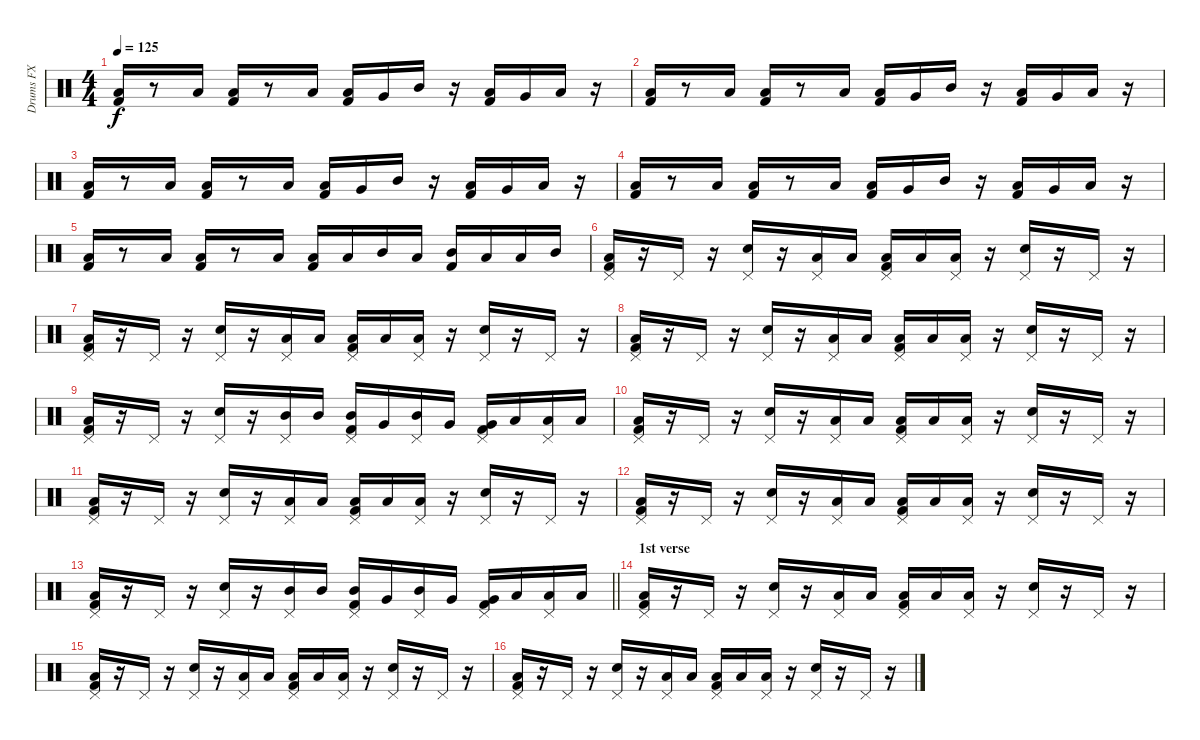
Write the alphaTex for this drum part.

\track ("Drums FX" "Drums FX") {instrument percussion}
\staff {score}
\articulation defaults
\ts (4 4)
\tempo 125
\clef neutral
\ks c
("Low Floor Tom (hit)" "Kick (hit) 2").16{dy f} r.8 "Low Floor Tom (hit)".16 ("Low Floor Tom (hit)" "Kick (hit) 2").16 r.8 "Low Floor Tom (hit)".16 ("Low Floor Tom (hit)" "Kick (hit) 2").16 "Very Low Tom (hit)".16 "Mid Tom (hit)".16 r.16 ("Low Floor Tom (hit)" "Kick (hit) 2").16 "Very Low Tom (hit)".16 "Low Floor Tom (hit)".16 r.16 |
("Low Floor Tom (hit)" "Kick (hit) 2").16 r.8 "Low Floor Tom (hit)".16 ("Low Floor Tom (hit)" "Kick (hit) 2").16 r.8 "Low Floor Tom (hit)".16 ("Low Floor Tom (hit)" "Kick (hit) 2").16 "Very Low Tom (hit)".16 "Mid Tom (hit)".16 r.16 ("Low Floor Tom (hit)" "Kick (hit) 2").16 "Very Low Tom (hit)".16 "Low Floor Tom (hit)".16 r.16 |
("Low Floor Tom (hit)" "Kick (hit) 2").16 r.8 "Low Floor Tom (hit)".16 ("Low Floor Tom (hit)" "Kick (hit) 2").16 r.8 "Low Floor Tom (hit)".16 ("Low Floor Tom (hit)" "Kick (hit) 2").16 "Very Low Tom (hit)".16 "Mid Tom (hit)".16 r.16 ("Low Floor Tom (hit)" "Kick (hit) 2").16 "Very Low Tom (hit)".16 "Low Floor Tom (hit)".16 r.16 |
("Low Floor Tom (hit)" "Kick (hit) 2").16 r.8 "Low Floor Tom (hit)".16 ("Low Floor Tom (hit)" "Kick (hit) 2").16 r.8 "Low Floor Tom (hit)".16 ("Low Floor Tom (hit)" "Kick (hit) 2").16 "Very Low Tom (hit)".16 "Mid Tom (hit)".16 r.16 ("Low Floor Tom (hit)" "Kick (hit) 2").16 "Very Low Tom (hit)".16 "Low Floor Tom (hit)".16 r.16 |
("Low Floor Tom (hit)" "Kick (hit) 2").16 r.8 "Low Floor Tom (hit)".16 ("Low Floor Tom (hit)" "Kick (hit) 2").16 r.8 "Low Floor Tom (hit)".16 ("Low Floor Tom (hit)" "Kick (hit) 2").16 "Low Floor Tom (hit)".16 "Mid Tom (hit)".16 "Low Floor Tom (hit)".16 ("Mid Tom (hit)" "Kick (hit) 2").16 "Low Floor Tom (hit)".16 "Low Floor Tom (hit)".16 "Mid Tom (hit)".16 |
("Low Floor Tom (hit)" "Pedal Hi-Hat (hit)" "Kick (hit) 2").16 r.16 "Pedal Hi-Hat (hit)".16 r.16 ("Snare (hit) 2" "Pedal Hi-Hat (hit)").16 r.16 ("Low Floor Tom (hit)" "Pedal Hi-Hat (hit)").16 "Low Floor Tom (hit)".16 ("Low Floor Tom (hit)" "Pedal Hi-Hat (hit)" "Kick (hit) 2").16 "Low Floor Tom (hit)".16 ("Low Floor Tom (hit)" "Pedal Hi-Hat (hit)").16 r.16 ("Snare (hit) 2" "Pedal Hi-Hat (hit)").16 r.16 "Pedal Hi-Hat (hit)".16 r.16 |
("Low Floor Tom (hit)" "Pedal Hi-Hat (hit)" "Kick (hit) 2").16 r.16 "Pedal Hi-Hat (hit)".16 r.16 ("Snare (hit) 2" "Pedal Hi-Hat (hit)").16 r.16 ("Low Floor Tom (hit)" "Pedal Hi-Hat (hit)").16 "Low Floor Tom (hit)".16 ("Low Floor Tom (hit)" "Pedal Hi-Hat (hit)" "Kick (hit) 2").16 "Low Floor Tom (hit)".16 ("Low Floor Tom (hit)" "Pedal Hi-Hat (hit)").16 r.16 ("Snare (hit) 2" "Pedal Hi-Hat (hit)").16 r.16 "Pedal Hi-Hat (hit)".16 r.16 |
("Low Floor Tom (hit)" "Pedal Hi-Hat (hit)" "Kick (hit) 2").16 r.16 "Pedal Hi-Hat (hit)".16 r.16 ("Snare (hit) 2" "Pedal Hi-Hat (hit)").16 r.16 ("Low Floor Tom (hit)" "Pedal Hi-Hat (hit)").16 "Low Floor Tom (hit)".16 ("Low Floor Tom (hit)" "Pedal Hi-Hat (hit)" "Kick (hit) 2").16 "Low Floor Tom (hit)".16 ("Low Floor Tom (hit)" "Pedal Hi-Hat (hit)").16 r.16 ("Snare (hit) 2" "Pedal Hi-Hat (hit)").16 r.16 "Pedal Hi-Hat (hit)".16 r.16 |
("Low Floor Tom (hit)" "Pedal Hi-Hat (hit)" "Kick (hit) 2").16 r.16 "Pedal Hi-Hat (hit)".16 r.16 ("Snare (hit) 2" "Pedal Hi-Hat (hit)").16 r.16 ("Mid Tom (hit)" "Pedal Hi-Hat (hit)").16 "Mid Tom (hit)".16 ("Mid Tom (hit)" "Pedal Hi-Hat (hit)" "Kick (hit) 2").16 "Very Low Tom (hit)".16 ("Mid Tom (hit)" "Pedal Hi-Hat (hit)").16 "Very Low Tom (hit)".16 ("Very Low Tom (hit)" "Pedal Hi-Hat (hit)" "Kick (hit) 2").16 "Low Floor Tom (hit)".16 ("Low Floor Tom (hit)" "Pedal Hi-Hat (hit)").16 "Low Floor Tom (hit)".16 |
("Low Floor Tom (hit)" "Pedal Hi-Hat (hit)" "Kick (hit) 2").16 r.16 "Pedal Hi-Hat (hit)".16 r.16 ("Snare (hit) 2" "Pedal Hi-Hat (hit)").16 r.16 ("Low Floor Tom (hit)" "Pedal Hi-Hat (hit)").16 "Low Floor Tom (hit)".16 ("Low Floor Tom (hit)" "Pedal Hi-Hat (hit)" "Kick (hit) 2").16 "Low Floor Tom (hit)".16 ("Low Floor Tom (hit)" "Pedal Hi-Hat (hit)").16 r.16 ("Snare (hit) 2" "Pedal Hi-Hat (hit)").16 r.16 "Pedal Hi-Hat (hit)".16 r.16 |
("Low Floor Tom (hit)" "Pedal Hi-Hat (hit)" "Kick (hit) 2").16 r.16 "Pedal Hi-Hat (hit)".16 r.16 ("Snare (hit) 2" "Pedal Hi-Hat (hit)").16 r.16 ("Low Floor Tom (hit)" "Pedal Hi-Hat (hit)").16 "Low Floor Tom (hit)".16 ("Low Floor Tom (hit)" "Pedal Hi-Hat (hit)" "Kick (hit) 2").16 "Low Floor Tom (hit)".16 ("Low Floor Tom (hit)" "Pedal Hi-Hat (hit)").16 r.16 ("Snare (hit) 2" "Pedal Hi-Hat (hit)").16 r.16 "Pedal Hi-Hat (hit)".16 r.16 |
("Low Floor Tom (hit)" "Pedal Hi-Hat (hit)" "Kick (hit) 2").16 r.16 "Pedal Hi-Hat (hit)".16 r.16 ("Snare (hit) 2" "Pedal Hi-Hat (hit)").16 r.16 ("Low Floor Tom (hit)" "Pedal Hi-Hat (hit)").16 "Low Floor Tom (hit)".16 ("Low Floor Tom (hit)" "Pedal Hi-Hat (hit)" "Kick (hit) 2").16 "Low Floor Tom (hit)".16 ("Low Floor Tom (hit)" "Pedal Hi-Hat (hit)").16 r.16 ("Snare (hit) 2" "Pedal Hi-Hat (hit)").16 r.16 "Pedal Hi-Hat (hit)".16 r.16 |
\barLineRight lightlight
("Low Floor Tom (hit)" "Pedal Hi-Hat (hit)" "Kick (hit) 2").16 r.16 "Pedal Hi-Hat (hit)".16 r.16 ("Snare (hit) 2" "Pedal Hi-Hat (hit)").16 r.16 ("Mid Tom (hit)" "Pedal Hi-Hat (hit)").16 "Mid Tom (hit)".16 ("Mid Tom (hit)" "Pedal Hi-Hat (hit)" "Kick (hit) 2").16 "Very Low Tom (hit)".16 ("Mid Tom (hit)" "Pedal Hi-Hat (hit)").16 "Very Low Tom (hit)".16 ("Very Low Tom (hit)" "Pedal Hi-Hat (hit)" "Kick (hit) 2").16 "Low Floor Tom (hit)".16 ("Low Floor Tom (hit)" "Pedal Hi-Hat (hit)").16 "Low Floor Tom (hit)".16 |
\section ("" "1st verse")
("Low Floor Tom (hit)" "Pedal Hi-Hat (hit)" "Kick (hit) 2").16 r.16 "Pedal Hi-Hat (hit)".16 r.16 ("Snare (hit) 2" "Pedal Hi-Hat (hit)").16 r.16 ("Low Floor Tom (hit)" "Pedal Hi-Hat (hit)").16 "Low Floor Tom (hit)".16 ("Low Floor Tom (hit)" "Pedal Hi-Hat (hit)" "Kick (hit) 2").16 "Low Floor Tom (hit)".16 ("Low Floor Tom (hit)" "Pedal Hi-Hat (hit)").16 r.16 ("Snare (hit) 2" "Pedal Hi-Hat (hit)").16 r.16 "Pedal Hi-Hat (hit)".16 r.16 |
("Low Floor Tom (hit)" "Pedal Hi-Hat (hit)" "Kick (hit) 2").16 r.16 "Pedal Hi-Hat (hit)".16 r.16 ("Snare (hit) 2" "Pedal Hi-Hat (hit)").16 r.16 ("Low Floor Tom (hit)" "Pedal Hi-Hat (hit)").16 "Low Floor Tom (hit)".16 ("Low Floor Tom (hit)" "Pedal Hi-Hat (hit)" "Kick (hit) 2").16 "Low Floor Tom (hit)".16 ("Low Floor Tom (hit)" "Pedal Hi-Hat (hit)").16 r.16 ("Snare (hit) 2" "Pedal Hi-Hat (hit)").16 r.16 "Pedal Hi-Hat (hit)".16 r.16 |
("Low Floor Tom (hit)" "Pedal Hi-Hat (hit)" "Kick (hit) 2").16 r.16 "Pedal Hi-Hat (hit)".16 r.16 ("Snare (hit) 2" "Pedal Hi-Hat (hit)").16 r.16 ("Low Floor Tom (hit)" "Pedal Hi-Hat (hit)").16 "Low Floor Tom (hit)".16 ("Low Floor Tom (hit)" "Pedal Hi-Hat (hit)" "Kick (hit) 2").16 "Low Floor Tom (hit)".16 ("Low Floor Tom (hit)" "Pedal Hi-Hat (hit)").16 r.16 ("Snare (hit) 2" "Pedal Hi-Hat (hit)").16 r.16 "Pedal Hi-Hat (hit)".16 r.16
